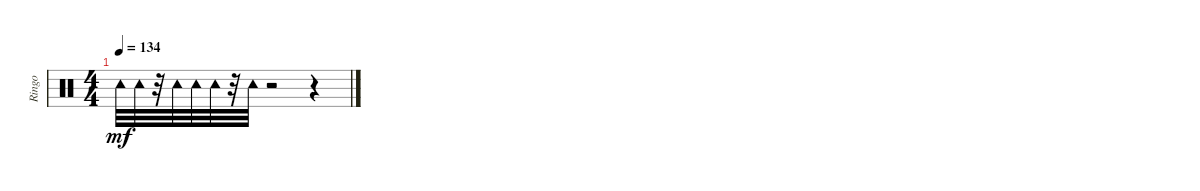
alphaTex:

\track ("Ringo" "Ringo") {instrument percussion}
\staff {score}
\articulation defaults
\ts (4 4)
\tempo 134
\clef neutral
\ks c "Tambourine (hit)".32{dy mf} "Tambourine (hit)".32
r.32 "Tambourine (hit)".32 "Tambourine (hit)".32 "Tambourine (hit)".32 r.32 "Tambourine (hit)".32 r.2 r.4
